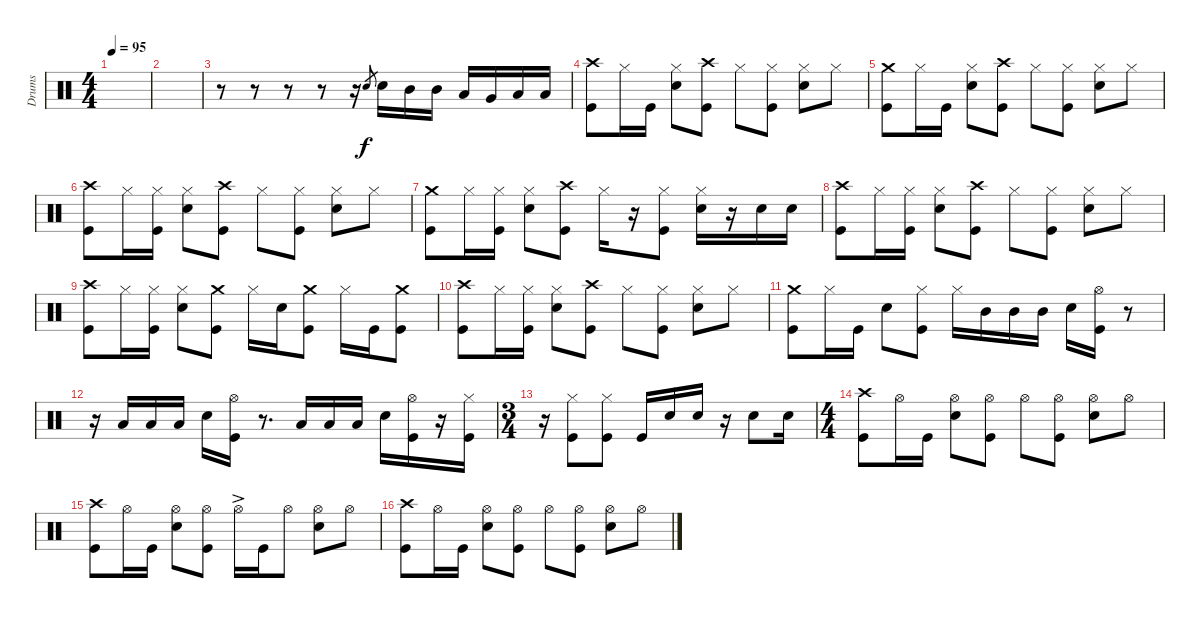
\track ("Drums" "Drums") {instrument percussion}
\staff {score}
\articulation defaults
\ts (4 4)
\tempo 95
\clef neutral
\ks c
|
|
r.8 r.8 r.8 r.8 r.16 "Electric Snare (hit)".8{gr} "Electric Snare (hit)".16 "Mid Tom (hit)".16 "Mid Tom (hit)".16 "Low Tom (hit)".16 "Very Low Tom (hit)".16 "Low Floor Tom (hit)".16 "Low Floor Tom (hit)".16 |
("Crash high (hit)" "Kick (hit)").8 "Hi-Hat (closed)".16 "Kick (hit)".16 ("Hi-Hat (closed)" "Electric Snare (hit)").8 ("Crash high (hit)" "Kick (hit)").8 "Hi-Hat (closed)".8 ("Hi-Hat (closed)" "Kick (hit)").8 ("Hi-Hat (closed)" "Electric Snare (hit)").8 "Hi-Hat (closed)".8 |
("Crash medium (hit)" "Kick (hit)").8 "Hi-Hat (closed)".16 "Kick (hit)".16 ("Hi-Hat (closed)" "Electric Snare (hit)").8 ("Crash high (hit)" "Kick (hit)").8 "Hi-Hat (closed)".8 ("Hi-Hat (closed)" "Kick (hit)").8 ("Hi-Hat (closed)" "Electric Snare (hit)").8 "Hi-Hat (closed)".8 |
("Crash high (hit)" "Kick (hit)").8 "Hi-Hat (closed)".16 ("Hi-Hat (closed)" "Kick (hit)").16 ("Hi-Hat (closed)" "Electric Snare (hit)").8 ("Crash high (hit)" "Kick (hit)").8 "Hi-Hat (closed)".8 ("Hi-Hat (closed)" "Kick (hit)").8 ("Hi-Hat (closed)" "Electric Snare (hit)").8 "Hi-Hat (closed)".8 |
("Crash medium (hit)" "Kick (hit)").8 "Hi-Hat (closed)".16 ("Hi-Hat (closed)" "Kick (hit)").16 ("Hi-Hat (closed)" "Electric Snare (hit)").8 ("Crash high (hit)" "Kick (hit)").8 "Hi-Hat (closed)".16 r.16 ("Hi-Hat (closed)" "Kick (hit)").8 ("Hi-Hat (closed)" "Electric Snare (hit)").16 r.16 "Electric Snare (hit)".16 "Electric Snare (hit)".16 |
("Crash high (hit)" "Kick (hit)").8 "Hi-Hat (closed)".16 ("Hi-Hat (closed)" "Kick (hit)").16 ("Hi-Hat (closed)" "Electric Snare (hit)").8 ("Crash high (hit)" "Kick (hit)").8 "Hi-Hat (closed)".8 ("Hi-Hat (closed)" "Kick (hit)").8 ("Hi-Hat (closed)" "Electric Snare (hit)").8 "Hi-Hat (closed)".8 |
("Crash high (hit)" "Kick (hit)").8 "Hi-Hat (closed)".16 ("Hi-Hat (closed)" "Kick (hit)").16 ("Hi-Hat (closed)" "Electric Snare (hit)").8 ("Crash medium (hit)" "Kick (hit)").8 "Hi-Hat (closed)".16 "Electric Snare (hit)".16 ("Crash medium (hit)" "Kick (hit)").8 "Hi-Hat (closed)".16 "Kick (hit)".16 ("Crash medium (hit)" "Kick (hit)").8 |
("Crash high (hit)" "Kick (hit)").8 "Hi-Hat (closed)".16 ("Hi-Hat (closed)" "Kick (hit)").16 ("Hi-Hat (closed)" "Electric Snare (hit)").8 ("Crash high (hit)" "Kick (hit)").8 "Hi-Hat (closed)".8 ("Hi-Hat (closed)" "Kick (hit)").8 ("Hi-Hat (closed)" "Electric Snare (hit)").8 "Hi-Hat (closed)".8 |
("Crash medium (hit)" "Kick (hit)").8 "Hi-Hat (closed)".16 "Kick (hit)".16 "Electric Snare (hit)".8 ("Hi-Hat (closed)" "Kick (hit)").8 "Hi-Hat (closed)".16 "Mid Tom (hit)".16 "Mid Tom (hit)".16 "Mid Tom (hit)".16 "Electric Snare (hit)".16 ("Hi-Hat (open)" "Kick (hit)").16 r.8 |
r.16 "Low Tom (hit)".16 "Low Tom (hit)".16 "Low Tom (hit)".16 "Electric Snare (hit)".16 ("Hi-Hat (open)" "Kick (hit)").16 r.8{d} "Low Tom (hit)".16 "Low Tom (hit)".16 "Low Tom (hit)".16 "Electric Snare (hit)".16 ("Hi-Hat (open)" "Kick (hit)").16 r.16 ("Hi-Hat (closed)" "Kick (hit)").16 |
\ts (3 4)
r.16 ("Hi-Hat (closed)" "Kick (hit)").8 ("Hi-Hat (closed)" "Kick (hit)").8 "Kick (hit)".16 "Electric Snare (hit)".16 "Electric Snare (hit)".16 r.16 "Electric Snare (hit)".8 "Electric Snare (hit)".16 |
\ts (4 4)
("Crash high (hit)" "Kick (hit)").8 "Hi-Hat (open)".16 "Kick (hit)".16 ("Hi-Hat (open)" "Electric Snare (hit)").8 ("Hi-Hat (open)" "Kick (hit)").8 "Hi-Hat (open)".8 ("Hi-Hat (open)" "Kick (hit)").8 ("Hi-Hat (open)" "Electric Snare (hit)").8 "Hi-Hat (open)".8 |
("Crash high (hit)" "Kick (hit)").8 "Hi-Hat (open)".16 "Kick (hit)".16 ("Hi-Hat (open)" "Electric Snare (hit)").8 ("Hi-Hat (open)" "Kick (hit)").8 "Hi-Hat (open)"{ac}.16 "Kick (hit)".16 "Hi-Hat (open)".8 ("Hi-Hat (open)" "Electric Snare (hit)").8 "Hi-Hat (open)".8 |
("Crash high (hit)" "Kick (hit)").8 "Hi-Hat (open)".16 "Kick (hit)".16 ("Hi-Hat (open)" "Electric Snare (hit)").8 ("Hi-Hat (open)" "Kick (hit)").8 "Hi-Hat (open)".8 ("Hi-Hat (open)" "Kick (hit)").8 ("Hi-Hat (open)" "Electric Snare (hit)").8 "Hi-Hat (open)".8
